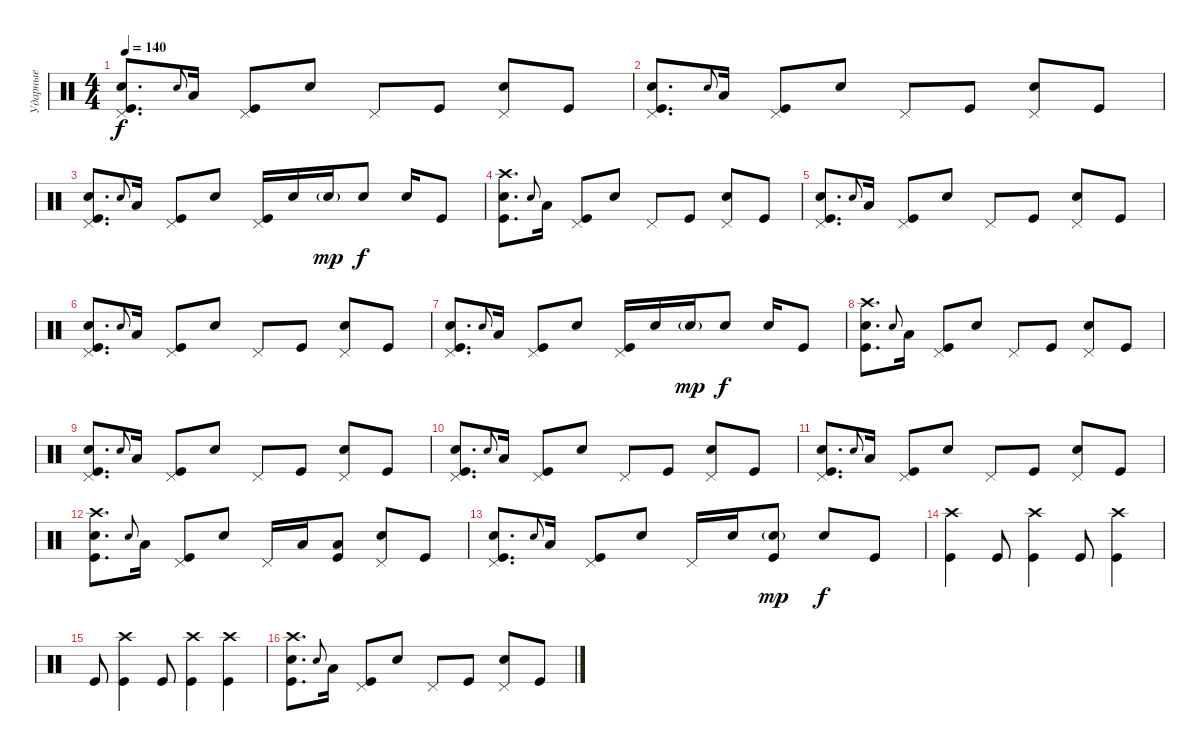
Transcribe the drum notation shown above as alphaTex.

\track ("Ударные" "Ударные") {instrument percussion}
\staff {score}
\articulation defaults
\ts (4 4)
\tempo 140
\clef neutral
\ks c
("Pedal Hi-Hat (hit)" "Snare (hit) 2" "Kick (hit)").8{d dy f} "Snare (hit) 2"{x}.8{gr onbeat} "Low Tom (hit)".16 ("Pedal Hi-Hat (hit)" "Kick (hit)").8 "Snare (hit) 2".8 "Pedal Hi-Hat (hit)".8 "Kick (hit)".8 ("Pedal Hi-Hat (hit)" "Electric Snare (hit)").8 "Kick (hit)".8 |
("Pedal Hi-Hat (hit)" "Snare (hit) 2" "Kick (hit)").8{d} "Snare (hit) 2"{x}.8{gr onbeat} "Low Tom (hit)".16 ("Pedal Hi-Hat (hit)" "Kick (hit)").8 "Snare (hit) 2".8 "Pedal Hi-Hat (hit)".8 "Kick (hit)".8 ("Pedal Hi-Hat (hit)" "Electric Snare (hit)").8 "Kick (hit)".8 |
("Pedal Hi-Hat (hit)" "Snare (hit) 2" "Kick (hit)").8{d} "Snare (hit) 2"{x}.8{gr onbeat} "Low Tom (hit)".16 ("Pedal Hi-Hat (hit)" "Kick (hit)").8 "Snare (hit) 2".8 ("Pedal Hi-Hat (hit)" "Kick (hit)").16 "Snare (hit) 2".16 "Snare (hit) 2"{g}.16{dy mp} "Snare (hit) 2".8{dy f} "Snare (hit) 2".16 "Kick (hit)".8 |
("Crash high (hit)" "Snare (hit) 2" "Kick (hit)").8{d} "Snare (hit) 2"{x}.8{gr onbeat} "Low Tom (hit)".16 ("Pedal Hi-Hat (hit)" "Kick (hit)").8 "Snare (hit) 2".8 "Pedal Hi-Hat (hit)".8 "Kick (hit)".8 ("Pedal Hi-Hat (hit)" "Electric Snare (hit)").8 "Kick (hit)".8 |
("Pedal Hi-Hat (hit)" "Snare (hit) 2" "Kick (hit)").8{d} "Snare (hit) 2"{x}.8{gr onbeat} "Low Tom (hit)".16 ("Pedal Hi-Hat (hit)" "Kick (hit)").8 "Snare (hit) 2".8 "Pedal Hi-Hat (hit)".8 "Kick (hit)".8 ("Pedal Hi-Hat (hit)" "Electric Snare (hit)").8 "Kick (hit)".8 |
("Pedal Hi-Hat (hit)" "Snare (hit) 2" "Kick (hit)").8{d} "Snare (hit) 2"{x}.8{gr onbeat} "Low Tom (hit)".16 ("Pedal Hi-Hat (hit)" "Kick (hit)").8 "Snare (hit) 2".8 "Pedal Hi-Hat (hit)".8 "Kick (hit)".8 ("Pedal Hi-Hat (hit)" "Electric Snare (hit)").8 "Kick (hit)".8 |
("Pedal Hi-Hat (hit)" "Snare (hit) 2" "Kick (hit)").8{d} "Snare (hit) 2"{x}.8{gr onbeat} "Low Tom (hit)".16 ("Pedal Hi-Hat (hit)" "Kick (hit)").8 "Snare (hit) 2".8 ("Pedal Hi-Hat (hit)" "Kick (hit)").16 "Snare (hit) 2".16 "Snare (hit) 2"{g}.16{dy mp} "Snare (hit) 2".8{dy f} "Snare (hit) 2".16 "Kick (hit)".8 |
("Crash high (hit)" "Snare (hit) 2" "Kick (hit)").8{d} "Snare (hit) 2"{x}.8{gr onbeat} "Low Tom (hit)".16 ("Pedal Hi-Hat (hit)" "Kick (hit)").8 "Snare (hit) 2".8 "Pedal Hi-Hat (hit)".8 "Kick (hit)".8 ("Pedal Hi-Hat (hit)" "Electric Snare (hit)").8 "Kick (hit)".8 |
("Pedal Hi-Hat (hit)" "Snare (hit) 2" "Kick (hit)").8{d} "Snare (hit) 2"{x}.8{gr onbeat} "Low Tom (hit)".16 ("Pedal Hi-Hat (hit)" "Kick (hit)").8 "Snare (hit) 2".8 "Pedal Hi-Hat (hit)".8 "Kick (hit)".8 ("Pedal Hi-Hat (hit)" "Electric Snare (hit)").8 "Kick (hit)".8 |
("Pedal Hi-Hat (hit)" "Snare (hit) 2" "Kick (hit)").8{d} "Snare (hit) 2"{x}.8{gr onbeat} "Low Tom (hit)".16 ("Pedal Hi-Hat (hit)" "Kick (hit)").8 "Snare (hit) 2".8 "Pedal Hi-Hat (hit)".8 "Kick (hit)".8 ("Pedal Hi-Hat (hit)" "Electric Snare (hit)").8 "Kick (hit)".8 |
("Pedal Hi-Hat (hit)" "Snare (hit) 2" "Kick (hit)").8{d} "Snare (hit) 2"{x}.8{gr onbeat} "Low Tom (hit)".16 ("Pedal Hi-Hat (hit)" "Kick (hit)").8 "Snare (hit) 2".8 "Pedal Hi-Hat (hit)".8 "Kick (hit)".8 ("Pedal Hi-Hat (hit)" "Electric Snare (hit)").8 "Kick (hit)".8 |
("Crash high (hit)" "Snare (hit) 2" "Kick (hit)").8{d} "Snare (hit) 2"{x}.8{gr onbeat} "Low Tom (hit)".16 ("Pedal Hi-Hat (hit)" "Kick (hit)").8 "Snare (hit) 2".8 "Pedal Hi-Hat (hit)".16 "Low Tom (hit)".16 ("Low Tom (hit)" "Kick (hit)").8 ("Pedal Hi-Hat (hit)" "Electric Snare (hit)").8 "Kick (hit)".8 |
("Pedal Hi-Hat (hit)" "Snare (hit) 2" "Kick (hit)").8{d} "Snare (hit) 2"{x}.8{gr onbeat} "Low Tom (hit)".16 ("Pedal Hi-Hat (hit)" "Kick (hit)").8 "Snare (hit) 2".8 "Pedal Hi-Hat (hit)".16 "Snare (hit) 2".16 ("Snare (hit) 2"{g} "Kick (hit)").8{dy mp} "Electric Snare (hit)".8{dy f} "Kick (hit)".8 |
("Crash high (hit)" "Kick (hit)").4 "Kick (hit)".8 ("Crash high (hit)" "Kick (hit)").4 "Kick (hit)".8 ("Crash high (hit)" "Kick (hit)").4 |
"Kick (hit)".8 ("Crash high (hit)" "Kick (hit)").4 "Kick (hit)".8 ("Crash high (hit)" "Kick (hit)").4 ("Crash high (hit)" "Kick (hit)").4 |
("Crash high (hit)" "Snare (hit) 2" "Kick (hit)").8{d} "Snare (hit) 2"{x}.8{gr onbeat} "Low Tom (hit)".16 ("Pedal Hi-Hat (hit)" "Kick (hit)").8 "Snare (hit) 2".8 "Pedal Hi-Hat (hit)".8 "Kick (hit)".8 ("Pedal Hi-Hat (hit)" "Electric Snare (hit)").8 "Kick (hit)".8
